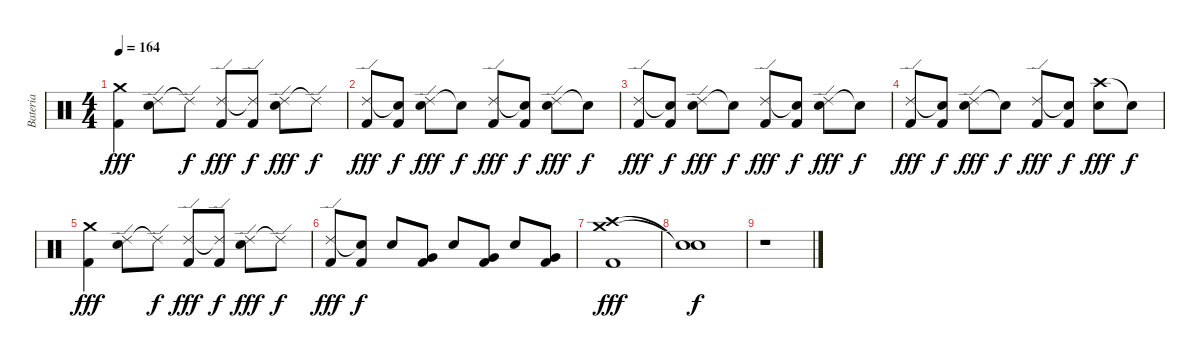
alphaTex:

\track ("Bateria" "Bateria") {instrument percussion}
\staff {score}
\articulation defaults
\ts (4 4)
\tempo 164
\clef neutral
\ks c
("Crash medium (hit)" "Kick (hit) 2").4{dy fff} ("Ride (edge) 2" "Electric Snare (hit)").8 "Ride (edge) 2"{t}.8{dy f} ("Ride (edge) 2" "Kick (hit) 2").8{dy fff} ("Ride (edge) 2"{t} "Kick (hit) 2").8{dy f} ("Ride (edge) 2" "Electric Snare (hit)").8{dy fff} "Ride (edge) 2"{t}.8{dy f} |
("Ride (edge) 2" "Kick (hit) 2").8{dy fff} ("Snare (hit)"{t} "Kick (hit) 2").8{dy f} ("Ride (edge) 2" "Electric Snare (hit)").8{dy fff} "Snare (hit)"{t}.8{dy f} ("Ride (edge) 2" "Kick (hit) 2").8{dy fff} ("Snare (hit)"{t} "Kick (hit) 2").8{dy f} ("Ride (edge) 2" "Electric Snare (hit)").8{dy fff} "Snare (hit)"{t}.8{dy f} |
("Ride (edge) 2" "Kick (hit) 2").8{dy fff} ("Snare (hit)"{t} "Kick (hit) 2").8{dy f} ("Ride (edge) 2" "Electric Snare (hit)").8{dy fff} "Snare (hit)"{t}.8{dy f} ("Ride (edge) 2" "Kick (hit) 2").8{dy fff} ("Snare (hit)"{t} "Kick (hit) 2").8{dy f} ("Ride (edge) 2" "Electric Snare (hit)").8{dy fff} "Snare (hit)"{t}.8{dy f} |
("Ride (edge) 2" "Kick (hit) 2").8{dy fff} ("Snare (hit)"{t} "Kick (hit) 2").8{dy f} ("Ride (edge) 2" "Electric Snare (hit)").8{dy fff} "Snare (hit)"{t}.8{dy f} ("Ride (edge) 2" "Kick (hit) 2").8{dy fff} ("Snare (hit)"{t} "Kick (hit) 2").8{dy f} ("Crash high (hit)" "Electric Snare (hit)").8{dy fff} "Snare (hit)"{t}.8{dy f} |
("Crash medium (hit)" "Kick (hit) 2").4{dy fff} ("Ride (edge) 2" "Electric Snare (hit)").8 "Ride (edge) 2"{t}.8{dy f} ("Ride (edge) 2" "Kick (hit) 2").8{dy fff} ("Ride (edge) 2"{t} "Kick (hit) 2").8{dy f} ("Ride (edge) 2" "Electric Snare (hit)").8{dy fff} "Ride (edge) 2"{t}.8{dy f} |
("Ride (edge) 2" "Kick (hit) 2").8{dy fff} ("Snare (hit)"{t} "Kick (hit) 2").8{dy f} "Electric Snare (hit)".8 ("Very Low Tom (hit)" "Kick (hit) 2").8 "Electric Snare (hit)".8 ("Very Low Tom (hit)" "Kick (hit) 2").8 "Electric Snare (hit)".8 ("Very Low Tom (hit)" "Kick (hit) 2").8 |
("Crash medium (hit)" "Crash high (hit)" "Kick (hit) 2").1{dy fff} |
("Snare (hit)"{t} "Snare (hit)"{t}).1{dy f} |
r.1
